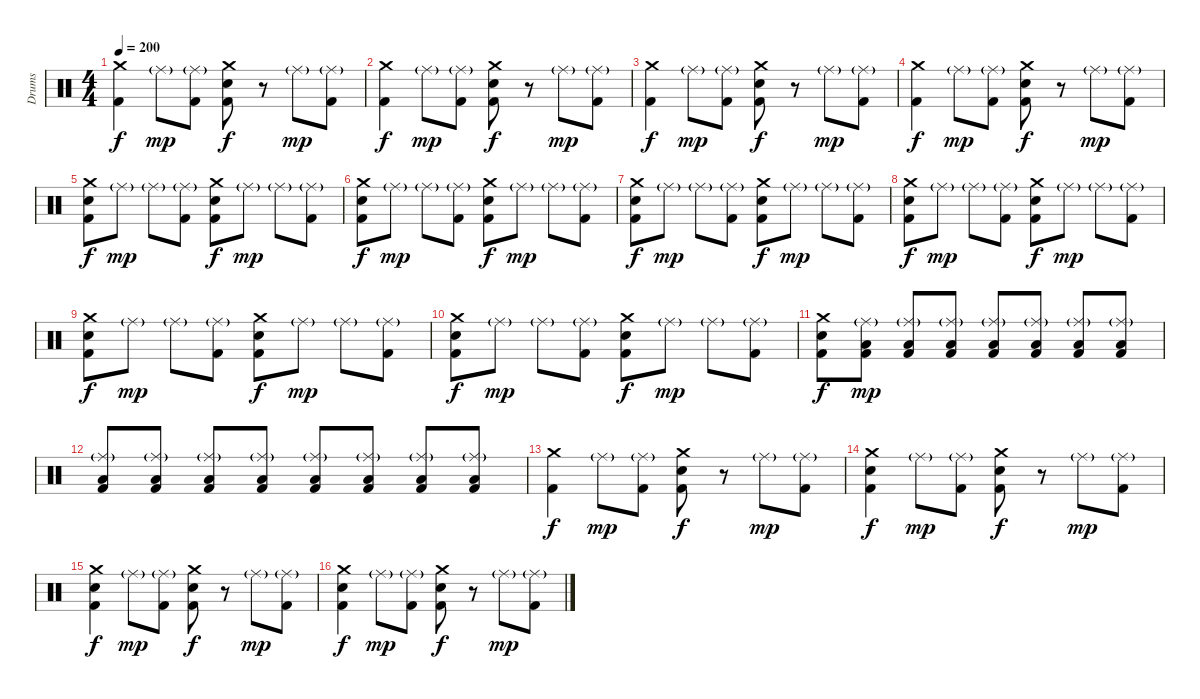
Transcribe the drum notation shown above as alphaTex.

\track ("Drums" "Drums") {instrument percussion}
\staff {score}
\articulation defaults
\ts (4 4)
\tempo 200
\clef neutral
\ks c
("Crash medium (hit)" "Kick (hit) 2").4{dy f} "Ride (middle)"{g}.8{dy mp} ("Ride (middle)"{g} "Kick (hit) 2").8 ("Crash medium (hit)" "Electric Snare (hit)" "Kick (hit) 2").8{dy f} r.8 "Ride (middle)"{g}.8{dy mp} ("Ride (middle)"{g} "Kick (hit) 2").8 |
("Crash medium (hit)" "Kick (hit) 2").4{dy f} "Ride (middle)"{g}.8{dy mp} ("Ride (middle)"{g} "Kick (hit) 2").8 ("Crash medium (hit)" "Electric Snare (hit)" "Kick (hit) 2").8{dy f} r.8 "Ride (middle)"{g}.8{dy mp} ("Ride (middle)"{g} "Kick (hit) 2").8 |
("Crash medium (hit)" "Kick (hit) 2").4{dy f} "Ride (middle)"{g}.8{dy mp} ("Ride (middle)"{g} "Kick (hit) 2").8 ("Crash medium (hit)" "Electric Snare (hit)" "Kick (hit) 2").8{dy f} r.8 "Ride (middle)"{g}.8{dy mp} ("Ride (middle)"{g} "Kick (hit) 2").8 |
("Crash medium (hit)" "Kick (hit) 2").4{dy f} "Ride (middle)"{g}.8{dy mp} ("Ride (middle)"{g} "Kick (hit) 2").8 ("Crash medium (hit)" "Electric Snare (hit)" "Kick (hit) 2").8{dy f} r.8 "Ride (middle)"{g}.8{dy mp} ("Ride (middle)"{g} "Kick (hit) 2").8 |
("Crash medium (hit)" "Electric Snare (hit)" "Kick (hit) 2").8{dy f} "Ride (middle)"{g}.8{dy mp} "Ride (middle)"{g}.8 ("Ride (middle)"{g} "Kick (hit) 2").8 ("Crash medium (hit)" "Electric Snare (hit)" "Kick (hit) 2").8{dy f} "Ride (middle)"{g}.8{dy mp} "Ride (middle)"{g}.8 ("Ride (middle)"{g} "Kick (hit) 2").8 |
("Crash medium (hit)" "Electric Snare (hit)" "Kick (hit) 2").8{dy f} "Ride (middle)"{g}.8{dy mp} "Ride (middle)"{g}.8 ("Ride (middle)"{g} "Kick (hit) 2").8 ("Crash medium (hit)" "Electric Snare (hit)" "Kick (hit) 2").8{dy f} "Ride (middle)"{g}.8{dy mp} "Ride (middle)"{g}.8 ("Ride (middle)"{g} "Kick (hit) 2").8 |
("Crash medium (hit)" "Electric Snare (hit)" "Kick (hit) 2").8{dy f} "Ride (middle)"{g}.8{dy mp} "Ride (middle)"{g}.8 ("Ride (middle)"{g} "Kick (hit) 2").8 ("Crash medium (hit)" "Electric Snare (hit)" "Kick (hit) 2").8{dy f} "Ride (middle)"{g}.8{dy mp} "Ride (middle)"{g}.8 ("Ride (middle)"{g} "Kick (hit) 2").8 |
("Crash medium (hit)" "Electric Snare (hit)" "Kick (hit) 2").8{dy f} "Ride (middle)"{g}.8{dy mp} "Ride (middle)"{g}.8 ("Ride (middle)"{g} "Kick (hit) 2").8 ("Crash medium (hit)" "Electric Snare (hit)" "Kick (hit) 2").8{dy f} "Ride (middle)"{g}.8{dy mp} "Ride (middle)"{g}.8 ("Ride (middle)"{g} "Kick (hit) 2").8 |
("Crash medium (hit)" "Electric Snare (hit)" "Kick (hit) 2").8{dy f} "Ride (middle)"{g}.8{dy mp} "Ride (middle)"{g}.8 ("Ride (middle)"{g} "Kick (hit) 2").8 ("Crash medium (hit)" "Electric Snare (hit)" "Kick (hit) 2").8{dy f} "Ride (middle)"{g}.8{dy mp} "Ride (middle)"{g}.8 ("Ride (middle)"{g} "Kick (hit) 2").8 |
("Crash medium (hit)" "Electric Snare (hit)" "Kick (hit) 2").8{dy f} "Ride (middle)"{g}.8{dy mp} "Ride (middle)"{g}.8 ("Ride (middle)"{g} "Kick (hit) 2").8 ("Crash medium (hit)" "Electric Snare (hit)" "Kick (hit) 2").8{dy f} "Ride (middle)"{g}.8{dy mp} "Ride (middle)"{g}.8 ("Ride (middle)"{g} "Kick (hit) 2").8 |
("Crash medium (hit)" "Electric Snare (hit)" "Kick (hit) 2").8{dy f} ("Ride (middle)"{g} "Low Floor Tom (hit)" "Kick (hit) 2").8{dy mp} ("Ride (middle)"{g} "Low Floor Tom (hit)" "Kick (hit) 2").8 ("Ride (middle)"{g} "Low Floor Tom (hit)" "Kick (hit) 2").8 ("Ride (middle)"{g} "Low Floor Tom (hit)" "Kick (hit) 2").8 ("Ride (middle)"{g} "Low Floor Tom (hit)" "Kick (hit) 2").8 ("Ride (middle)"{g} "Low Floor Tom (hit)" "Kick (hit) 2").8 ("Ride (middle)"{g} "Low Floor Tom (hit)" "Kick (hit) 2").8 |
("Ride (middle)"{g} "Low Floor Tom (hit)" "Kick (hit) 2").8 ("Ride (middle)"{g} "Low Floor Tom (hit)" "Kick (hit) 2").8 ("Ride (middle)"{g} "Low Floor Tom (hit)" "Kick (hit) 2").8 ("Ride (middle)"{g} "Low Floor Tom (hit)" "Kick (hit) 2").8 ("Ride (middle)"{g} "Low Floor Tom (hit)" "Kick (hit) 2").8 ("Ride (middle)"{g} "Low Floor Tom (hit)" "Kick (hit) 2").8 ("Ride (middle)"{g} "Low Floor Tom (hit)" "Kick (hit) 2").8 ("Ride (middle)"{g} "Low Floor Tom (hit)" "Kick (hit) 2").8 |
("Crash medium (hit)" "Kick (hit) 2").4{dy f} "Ride (middle)"{g}.8{dy mp} ("Ride (middle)"{g} "Kick (hit) 2").8 ("Crash medium (hit)" "Electric Snare (hit)" "Kick (hit) 2").8{dy f} r.8 "Ride (middle)"{g}.8{dy mp} ("Ride (middle)"{g} "Kick (hit) 2").8 |
("Crash medium (hit)" "Electric Snare (hit)" "Kick (hit) 2").4{dy f} "Ride (middle)"{g}.8{dy mp} ("Ride (middle)"{g} "Kick (hit) 2").8 ("Crash medium (hit)" "Electric Snare (hit)" "Kick (hit) 2").8{dy f} r.8 "Ride (middle)"{g}.8{dy mp} ("Ride (middle)"{g} "Kick (hit) 2").8 |
("Crash medium (hit)" "Electric Snare (hit)" "Kick (hit) 2").4{dy f} "Ride (middle)"{g}.8{dy mp} ("Ride (middle)"{g} "Kick (hit) 2").8 ("Crash medium (hit)" "Electric Snare (hit)" "Kick (hit) 2").8{dy f} r.8 "Ride (middle)"{g}.8{dy mp} ("Ride (middle)"{g} "Kick (hit) 2").8 |
("Crash medium (hit)" "Electric Snare (hit)" "Kick (hit) 2").4{dy f} "Ride (middle)"{g}.8{dy mp} ("Ride (middle)"{g} "Kick (hit) 2").8 ("Crash medium (hit)" "Electric Snare (hit)" "Kick (hit) 2").8{dy f} r.8 "Ride (middle)"{g}.8{dy mp} ("Ride (middle)"{g} "Kick (hit) 2").8
